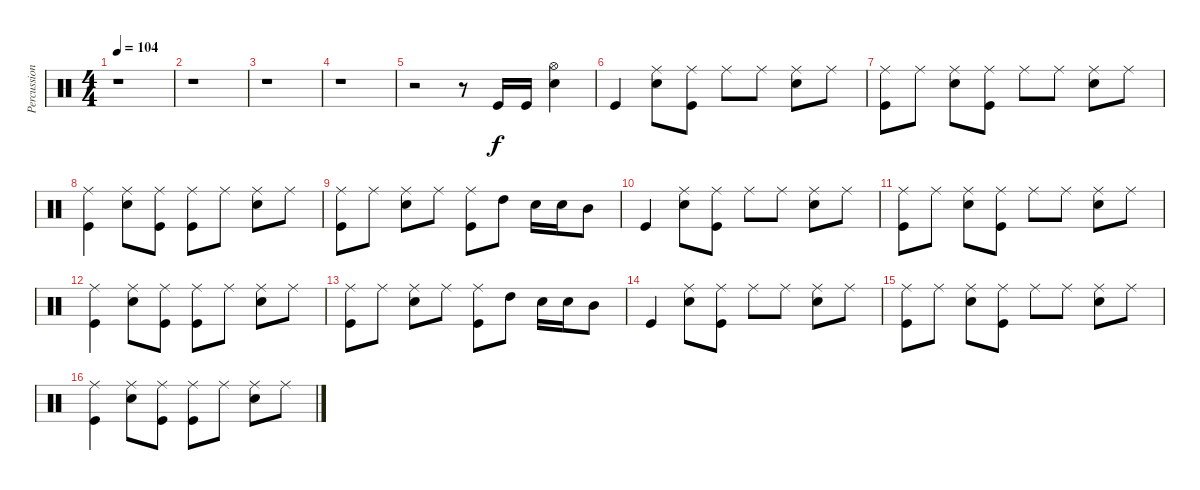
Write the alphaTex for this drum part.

\track ("Percussion" "Percussion") {instrument percussion}
\staff {score}
\articulation defaults
\ts (4 4)
\tempo 104
\clef neutral
\ks c
r.1{dy f} |
r.1 |
r.1 |
r.1 |
r.2 r.8 "Kick (hit)".16 "Kick (hit)".16 ("Hi-Hat (open)" "Snare (hit) 2").4 |
"Kick (hit)".4 ("Ride (middle)" "Snare (hit) 2").8 ("Ride (middle)" "Kick (hit)").8 "Ride (middle)".8 "Ride (middle)".8 ("Ride (middle)" "Snare (hit) 2").8 "Ride (middle)".8 |
("Ride (middle)" "Kick (hit)").8 "Ride (middle)".8 ("Ride (middle)" "Snare (hit) 2").8 ("Ride (middle)" "Kick (hit)").8 "Ride (middle)".8 "Ride (middle)".8 ("Ride (middle)" "Snare (hit) 2").8 "Ride (middle)".8 |
("Ride (middle)" "Kick (hit)").4 ("Ride (middle)" "Snare (hit) 2").8 ("Ride (middle)" "Kick (hit)").8 ("Ride (middle)" "Kick (hit)").8 "Ride (middle)".8 ("Ride (middle)" "Snare (hit) 2").8 "Ride (middle)".8 |
("Ride (middle)" "Kick (hit)").8 "Ride (middle)".8 ("Ride (middle)" "Snare (hit) 2").8 "Ride (middle)".8 ("Ride (middle)" "Kick (hit)").8 "High Tom (hit)".8 "Snare (hit) 2".16 "Snare (hit) 2".16 "Mid Tom (hit)".8 |
"Kick (hit)".4 ("Ride (middle)" "Snare (hit) 2").8 ("Ride (middle)" "Kick (hit)").8 "Ride (middle)".8 "Ride (middle)".8 ("Ride (middle)" "Snare (hit) 2").8 "Ride (middle)".8 |
("Ride (middle)" "Kick (hit)").8 "Ride (middle)".8 ("Ride (middle)" "Snare (hit) 2").8 ("Ride (middle)" "Kick (hit)").8 "Ride (middle)".8 "Ride (middle)".8 ("Ride (middle)" "Snare (hit) 2").8 "Ride (middle)".8 |
("Ride (middle)" "Kick (hit)").4 ("Ride (middle)" "Snare (hit) 2").8 ("Ride (middle)" "Kick (hit)").8 ("Ride (middle)" "Kick (hit)").8 "Ride (middle)".8 ("Ride (middle)" "Snare (hit) 2").8 "Ride (middle)".8 |
("Ride (middle)" "Kick (hit)").8 "Ride (middle)".8 ("Ride (middle)" "Snare (hit) 2").8 "Ride (middle)".8 ("Ride (middle)" "Kick (hit)").8 "High Tom (hit)".8 "Snare (hit) 2".16 "Snare (hit) 2".16 "Mid Tom (hit)".8 |
"Kick (hit)".4 ("Ride (middle)" "Snare (hit) 2").8 ("Ride (middle)" "Kick (hit)").8 "Ride (middle)".8 "Ride (middle)".8 ("Ride (middle)" "Snare (hit) 2").8 "Ride (middle)".8 |
("Ride (middle)" "Kick (hit)").8 "Ride (middle)".8 ("Ride (middle)" "Snare (hit) 2").8 ("Ride (middle)" "Kick (hit)").8 "Ride (middle)".8 "Ride (middle)".8 ("Ride (middle)" "Snare (hit) 2").8 "Ride (middle)".8 |
("Ride (middle)" "Kick (hit)").4 ("Ride (middle)" "Snare (hit) 2").8 ("Ride (middle)" "Kick (hit)").8 ("Ride (middle)" "Kick (hit)").8 "Ride (middle)".8 ("Ride (middle)" "Snare (hit) 2").8 "Ride (middle)".8
